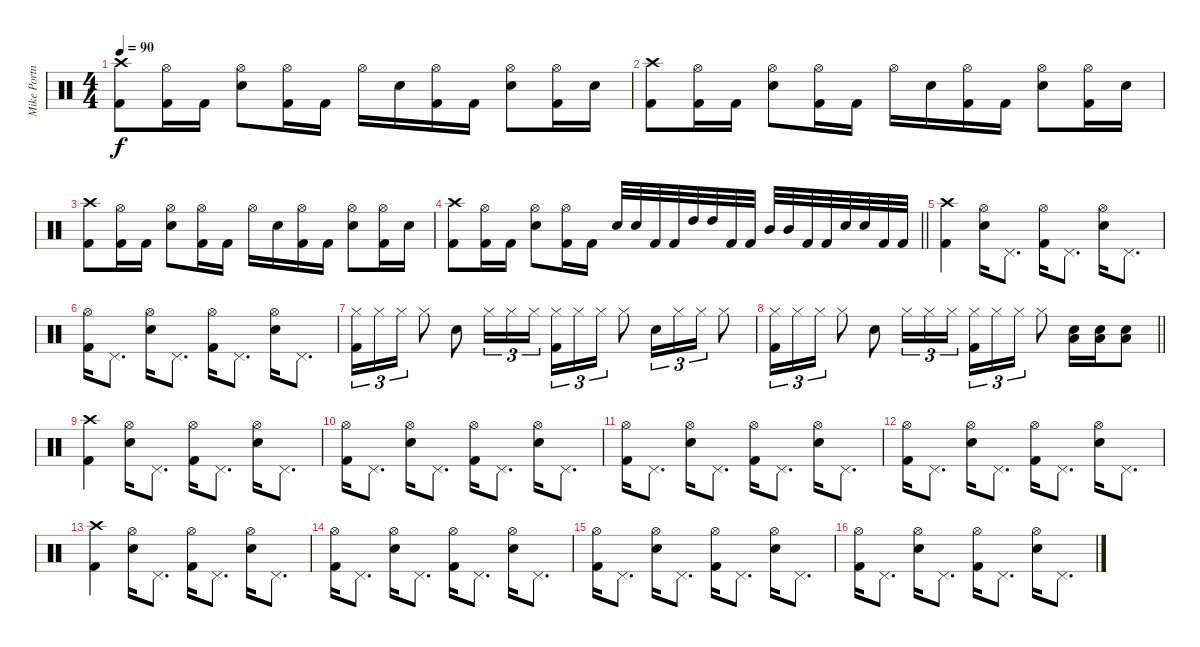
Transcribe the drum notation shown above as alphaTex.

\track ("Mike Portnoy" "Mike Portn") {instrument percussion}
\staff {score}
\articulation defaults
\ts (4 4)
\tempo 90
\clef neutral
\ks c
("Crash high (hit)" "Kick (hit) 2").8{dy f} ("Hi-Hat (open)" "Kick (hit) 2").16 "Kick (hit) 2".16 ("Hi-Hat (open)" "Snare (hit) 2").8 ("Hi-Hat (open)" "Kick (hit) 2").16 "Kick (hit) 2".16 "Hi-Hat (open)".16 "Snare (hit) 2".16 ("Hi-Hat (open)" "Kick (hit) 2").16 "Kick (hit) 2".16 ("Hi-Hat (open)" "Snare (hit) 2").8 ("Hi-Hat (open)" "Kick (hit) 2").16 "Snare (hit) 2".16 |
("Crash high (hit)" "Kick (hit) 2").8 ("Hi-Hat (open)" "Kick (hit) 2").16 "Kick (hit) 2".16 ("Hi-Hat (open)" "Snare (hit) 2").8 ("Hi-Hat (open)" "Kick (hit) 2").16 "Kick (hit) 2".16 "Hi-Hat (open)".16 "Snare (hit) 2".16 ("Hi-Hat (open)" "Kick (hit) 2").16 "Kick (hit) 2".16 ("Hi-Hat (open)" "Snare (hit) 2").8 ("Hi-Hat (open)" "Kick (hit) 2").16 "Snare (hit) 2".16 |
("Crash high (hit)" "Kick (hit) 2").8 ("Hi-Hat (open)" "Kick (hit) 2").16 "Kick (hit) 2".16 ("Hi-Hat (open)" "Snare (hit) 2").8 ("Hi-Hat (open)" "Kick (hit) 2").16 "Kick (hit) 2".16 "Hi-Hat (open)".16 "Snare (hit) 2".16 ("Hi-Hat (open)" "Kick (hit) 2").16 "Kick (hit) 2".16 ("Hi-Hat (open)" "Snare (hit) 2").8 ("Hi-Hat (open)" "Kick (hit) 2").16 "Snare (hit) 2".16 |
\barLineRight lightlight
("Crash high (hit)" "Kick (hit) 2").8 ("Hi-Hat (open)" "Kick (hit) 2").16 "Kick (hit) 2".16 ("Hi-Hat (open)" "Snare (hit) 2").8 ("Hi-Hat (open)" "Kick (hit) 2").16 "Kick (hit) 2".16 "Snare (hit) 2".32 "Snare (hit) 2".32 "Kick (hit) 2".32 "Kick (hit) 2".32 "High Tom (hit)".32 "High Tom (hit)".32 "Kick (hit) 2".32 "Kick (hit) 2".32 "Mid Tom (hit)".32 "Mid Tom (hit)".32 "Kick (hit) 2".32 "Kick (hit) 2".32 "Snare (hit) 2".32 "Snare (hit) 2".32 "Kick (hit) 2".32 "Kick (hit) 2".32 |
("Crash high (hit)" "Kick (hit) 2").4 ("Hi-Hat (open)" "Snare (hit) 2").16 "Pedal Hi-Hat (hit)".8{d} ("Hi-Hat (open)" "Kick (hit) 2").16 "Pedal Hi-Hat (hit)".8{d} ("Hi-Hat (open)" "Snare (hit) 2").16 "Pedal Hi-Hat (hit)".8{d} |
("Hi-Hat (open)" "Kick (hit) 2").16 "Pedal Hi-Hat (hit)".8{d} ("Hi-Hat (open)" "Snare (hit) 2").16 "Pedal Hi-Hat (hit)".8{d} ("Hi-Hat (open)" "Kick (hit) 2").16 "Pedal Hi-Hat (hit)".8{d} ("Hi-Hat (open)" "Snare (hit) 2").16 "Pedal Hi-Hat (hit)".8{d} |
("Hi-Hat (closed)" "Kick (hit) 2").16{tu (3 2)} "Hi-Hat (closed)".16{tu (3 2)} "Hi-Hat (closed)".16{tu (3 2)} "Hi-Hat (closed)".8 "Snare (hit) 2".8 "Hi-Hat (closed)".16{tu (3 2)} "Hi-Hat (closed)".16{tu (3 2)} "Hi-Hat (closed)".16{tu (3 2)} ("Hi-Hat (closed)" "Kick (hit) 2").16{tu (3 2)} "Hi-Hat (closed)".16{tu (3 2)} "Hi-Hat (closed)".16{tu (3 2)} "Hi-Hat (closed)".8 "Snare (hit) 2".16{tu (3 2)} "Hi-Hat (closed)".16{tu (3 2)} "Hi-Hat (closed)".16{tu (3 2)} "Hi-Hat (closed)".8 |
\barLineRight lightlight
("Hi-Hat (closed)" "Kick (hit) 2").16{tu (3 2)} "Hi-Hat (closed)".16{tu (3 2)} "Hi-Hat (closed)".16{tu (3 2)} "Hi-Hat (closed)".8 "Snare (hit) 2".8 "Hi-Hat (closed)".16{tu (3 2)} "Hi-Hat (closed)".16{tu (3 2)} "Hi-Hat (closed)".16{tu (3 2)} ("Hi-Hat (closed)" "Kick (hit) 2").16{tu (3 2)} "Hi-Hat (closed)".16{tu (3 2)} "Hi-Hat (closed)".16{tu (3 2)} "Hi-Hat (closed)".8 ("Snare (hit) 2" "Low Tom (hit)").16 ("Snare (hit) 2" "Low Tom (hit)").16 ("Snare (hit) 2" "Low Tom (hit)").8 |
("Crash high (hit)" "Kick (hit) 2").4 ("Hi-Hat (open)" "Snare (hit) 2").16 "Pedal Hi-Hat (hit)".8{d} ("Hi-Hat (open)" "Kick (hit) 2").16 "Pedal Hi-Hat (hit)".8{d} ("Hi-Hat (open)" "Snare (hit) 2").16 "Pedal Hi-Hat (hit)".8{d} |
("Hi-Hat (open)" "Kick (hit) 2").16 "Pedal Hi-Hat (hit)".8{d} ("Hi-Hat (open)" "Snare (hit) 2").16 "Pedal Hi-Hat (hit)".8{d} ("Hi-Hat (open)" "Kick (hit) 2").16 "Pedal Hi-Hat (hit)".8{d} ("Hi-Hat (open)" "Snare (hit) 2").16 "Pedal Hi-Hat (hit)".8{d} |
("Hi-Hat (open)" "Kick (hit) 2").16 "Pedal Hi-Hat (hit)".8{d} ("Hi-Hat (open)" "Snare (hit) 2").16 "Pedal Hi-Hat (hit)".8{d} ("Hi-Hat (open)" "Kick (hit) 2").16 "Pedal Hi-Hat (hit)".8{d} ("Hi-Hat (open)" "Snare (hit) 2").16 "Pedal Hi-Hat (hit)".8{d} |
("Hi-Hat (open)" "Kick (hit) 2").16 "Pedal Hi-Hat (hit)".8{d} ("Hi-Hat (open)" "Snare (hit) 2").16 "Pedal Hi-Hat (hit)".8{d} ("Hi-Hat (open)" "Kick (hit) 2").16 "Pedal Hi-Hat (hit)".8{d} ("Hi-Hat (open)" "Snare (hit) 2").16 "Pedal Hi-Hat (hit)".8{d} |
("Crash high (hit)" "Kick (hit) 2").4 ("Hi-Hat (open)" "Snare (hit) 2").16 "Pedal Hi-Hat (hit)".8{d} ("Hi-Hat (open)" "Kick (hit) 2").16 "Pedal Hi-Hat (hit)".8{d} ("Hi-Hat (open)" "Snare (hit) 2").16 "Pedal Hi-Hat (hit)".8{d} |
("Hi-Hat (open)" "Kick (hit) 2").16 "Pedal Hi-Hat (hit)".8{d} ("Hi-Hat (open)" "Snare (hit) 2").16 "Pedal Hi-Hat (hit)".8{d} ("Hi-Hat (open)" "Kick (hit) 2").16 "Pedal Hi-Hat (hit)".8{d} ("Hi-Hat (open)" "Snare (hit) 2").16 "Pedal Hi-Hat (hit)".8{d} |
("Hi-Hat (open)" "Kick (hit) 2").16 "Pedal Hi-Hat (hit)".8{d} ("Hi-Hat (open)" "Snare (hit) 2").16 "Pedal Hi-Hat (hit)".8{d} ("Hi-Hat (open)" "Kick (hit) 2").16 "Pedal Hi-Hat (hit)".8{d} ("Hi-Hat (open)" "Snare (hit) 2").16 "Pedal Hi-Hat (hit)".8{d} |
("Hi-Hat (open)" "Kick (hit) 2").16 "Pedal Hi-Hat (hit)".8{d} ("Hi-Hat (open)" "Snare (hit) 2").16 "Pedal Hi-Hat (hit)".8{d} ("Hi-Hat (open)" "Kick (hit) 2").16 "Pedal Hi-Hat (hit)".8{d} ("Hi-Hat (open)" "Snare (hit) 2").16 "Pedal Hi-Hat (hit)".8{d}
